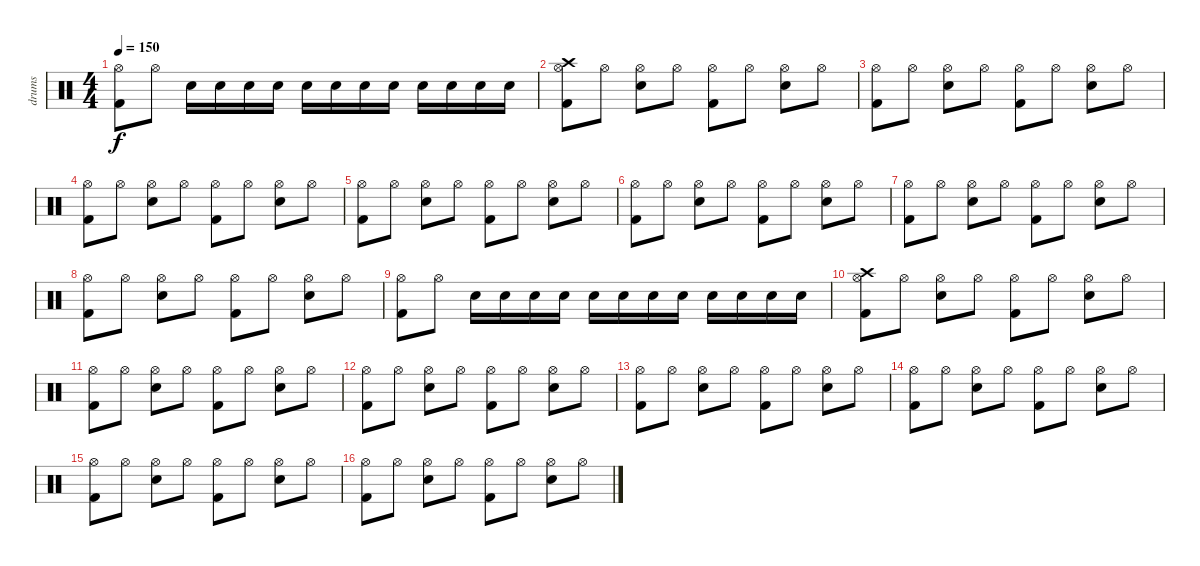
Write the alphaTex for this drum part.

\track ("drums" "drums") {instrument percussion}
\staff {score}
\articulation defaults
\ts (4 4)
\tempo 150
\clef neutral
\ks c
("Kick (hit) 2" "Hi-Hat (open)").8{dy f} "Hi-Hat (open)".8 "Electric Snare (hit)".16 "Electric Snare (hit)".16 "Electric Snare (hit)".16 "Electric Snare (hit)".16 "Electric Snare (hit)".16 "Electric Snare (hit)".16 "Electric Snare (hit)".16 "Electric Snare (hit)".16 "Electric Snare (hit)".16 "Electric Snare (hit)".16 "Electric Snare (hit)".16 "Electric Snare (hit)".16 |
("Kick (hit) 2" "Hi-Hat (open)" "Crash high (hit)").8 "Hi-Hat (open)".8 ("Electric Snare (hit)" "Hi-Hat (open)").8 "Hi-Hat (open)".8 ("Kick (hit) 2" "Hi-Hat (open)").8 "Hi-Hat (open)".8 ("Electric Snare (hit)" "Hi-Hat (open)").8 "Hi-Hat (open)".8 |
("Kick (hit) 2" "Hi-Hat (open)").8 "Hi-Hat (open)".8 ("Electric Snare (hit)" "Hi-Hat (open)").8 "Hi-Hat (open)".8 ("Kick (hit) 2" "Hi-Hat (open)").8 "Hi-Hat (open)".8 ("Electric Snare (hit)" "Hi-Hat (open)").8 "Hi-Hat (open)".8 |
("Kick (hit) 2" "Hi-Hat (open)").8 "Hi-Hat (open)".8 ("Electric Snare (hit)" "Hi-Hat (open)").8 "Hi-Hat (open)".8 ("Kick (hit) 2" "Hi-Hat (open)").8 "Hi-Hat (open)".8 ("Electric Snare (hit)" "Hi-Hat (open)").8 "Hi-Hat (open)".8 |
("Kick (hit) 2" "Hi-Hat (open)").8 "Hi-Hat (open)".8 ("Electric Snare (hit)" "Hi-Hat (open)").8 "Hi-Hat (open)".8 ("Kick (hit) 2" "Hi-Hat (open)").8 "Hi-Hat (open)".8 ("Electric Snare (hit)" "Hi-Hat (open)").8 "Hi-Hat (open)".8 |
("Kick (hit) 2" "Hi-Hat (open)").8 "Hi-Hat (open)".8 ("Electric Snare (hit)" "Hi-Hat (open)").8 "Hi-Hat (open)".8 ("Kick (hit) 2" "Hi-Hat (open)").8 "Hi-Hat (open)".8 ("Electric Snare (hit)" "Hi-Hat (open)").8 "Hi-Hat (open)".8 |
("Kick (hit) 2" "Hi-Hat (open)").8 "Hi-Hat (open)".8 ("Electric Snare (hit)" "Hi-Hat (open)").8 "Hi-Hat (open)".8 ("Kick (hit) 2" "Hi-Hat (open)").8 "Hi-Hat (open)".8 ("Electric Snare (hit)" "Hi-Hat (open)").8 "Hi-Hat (open)".8 |
("Kick (hit) 2" "Hi-Hat (open)").8 "Hi-Hat (open)".8 ("Electric Snare (hit)" "Hi-Hat (open)").8 "Hi-Hat (open)".8 ("Kick (hit) 2" "Hi-Hat (open)").8 "Hi-Hat (open)".8 ("Electric Snare (hit)" "Hi-Hat (open)").8 "Hi-Hat (open)".8 |
("Kick (hit) 2" "Hi-Hat (open)").8 "Hi-Hat (open)".8 "Electric Snare (hit)".16 "Electric Snare (hit)".16 "Electric Snare (hit)".16 "Electric Snare (hit)".16 "Electric Snare (hit)".16 "Electric Snare (hit)".16 "Electric Snare (hit)".16 "Electric Snare (hit)".16 "Electric Snare (hit)".16 "Electric Snare (hit)".16 "Electric Snare (hit)".16 "Electric Snare (hit)".16 |
("Kick (hit) 2" "Hi-Hat (open)" "Crash high (hit)").8 "Hi-Hat (open)".8 ("Electric Snare (hit)" "Hi-Hat (open)").8 "Hi-Hat (open)".8 ("Kick (hit) 2" "Hi-Hat (open)").8 "Hi-Hat (open)".8 ("Electric Snare (hit)" "Hi-Hat (open)").8 "Hi-Hat (open)".8 |
("Kick (hit) 2" "Hi-Hat (open)").8 "Hi-Hat (open)".8 ("Electric Snare (hit)" "Hi-Hat (open)").8 "Hi-Hat (open)".8 ("Kick (hit) 2" "Hi-Hat (open)").8 "Hi-Hat (open)".8 ("Electric Snare (hit)" "Hi-Hat (open)").8 "Hi-Hat (open)".8 |
("Kick (hit) 2" "Hi-Hat (open)").8 "Hi-Hat (open)".8 ("Electric Snare (hit)" "Hi-Hat (open)").8 "Hi-Hat (open)".8 ("Kick (hit) 2" "Hi-Hat (open)").8 "Hi-Hat (open)".8 ("Electric Snare (hit)" "Hi-Hat (open)").8 "Hi-Hat (open)".8 |
("Kick (hit) 2" "Hi-Hat (open)").8 "Hi-Hat (open)".8 ("Electric Snare (hit)" "Hi-Hat (open)").8 "Hi-Hat (open)".8 ("Kick (hit) 2" "Hi-Hat (open)").8 "Hi-Hat (open)".8 ("Electric Snare (hit)" "Hi-Hat (open)").8 "Hi-Hat (open)".8 |
("Kick (hit) 2" "Hi-Hat (open)").8 "Hi-Hat (open)".8 ("Electric Snare (hit)" "Hi-Hat (open)").8 "Hi-Hat (open)".8 ("Kick (hit) 2" "Hi-Hat (open)").8 "Hi-Hat (open)".8 ("Electric Snare (hit)" "Hi-Hat (open)").8 "Hi-Hat (open)".8 |
("Kick (hit) 2" "Hi-Hat (open)").8 "Hi-Hat (open)".8 ("Electric Snare (hit)" "Hi-Hat (open)").8 "Hi-Hat (open)".8 ("Kick (hit) 2" "Hi-Hat (open)").8 "Hi-Hat (open)".8 ("Electric Snare (hit)" "Hi-Hat (open)").8 "Hi-Hat (open)".8 |
("Kick (hit) 2" "Hi-Hat (open)").8 "Hi-Hat (open)".8 ("Electric Snare (hit)" "Hi-Hat (open)").8 "Hi-Hat (open)".8 ("Kick (hit) 2" "Hi-Hat (open)").8 "Hi-Hat (open)".8 ("Electric Snare (hit)" "Hi-Hat (open)").8 "Hi-Hat (open)".8
